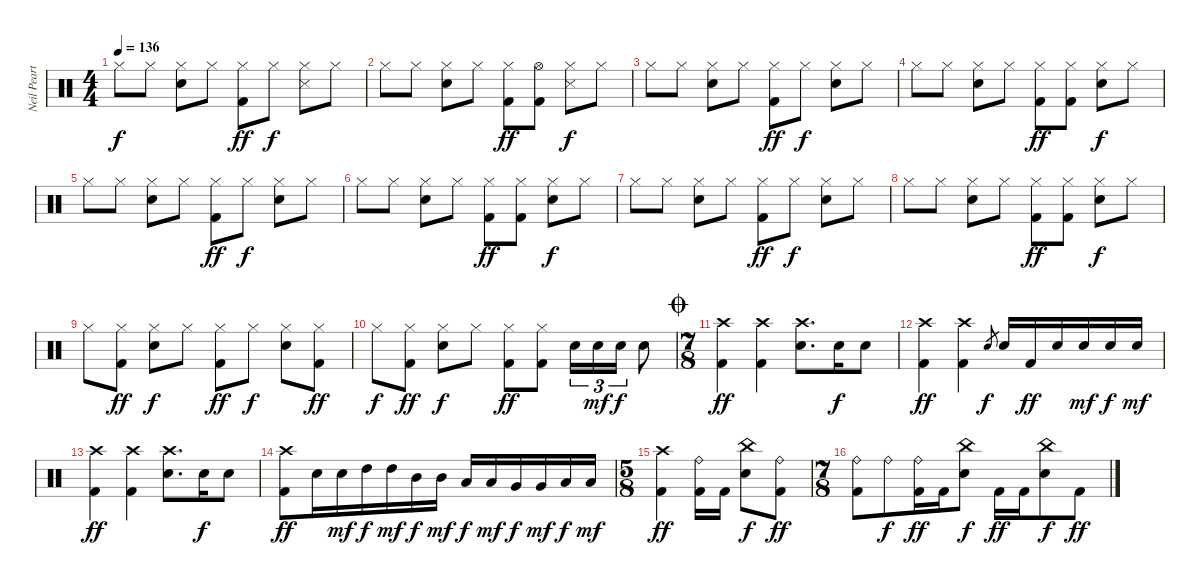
\track ("Neil Peart" "Neil Peart") {instrument percussion}
\staff {score}
\articulation defaults
\ts (4 4)
\tempo 136
\clef neutral
\ks c "Hi-Hat (closed)".8{dy f} "Hi-Hat (closed)".8
("Hi-Hat (closed)" "Snare (hit) 2").8 "Hi-Hat (closed)".8 ("Hi-Hat (closed)" "Kick (hit) 2").8{dy ff} "Hi-Hat (closed)".8{dy f} ("Hi-Hat (closed)" "Snare (side stick) 3").8 "Hi-Hat (closed)".8 |
"Hi-Hat (closed)".8 "Hi-Hat (closed)".8 ("Hi-Hat (closed)" "Snare (hit) 2").8 "Hi-Hat (closed)".8 ("Hi-Hat (closed)" "Kick (hit) 2").8{dy ff} ("Hi-Hat (open)" "Kick (hit) 2").8 ("Hi-Hat (closed)" "Snare (side stick) 3").8{dy f} "Hi-Hat (closed)".8 |
"Hi-Hat (closed)".8 "Hi-Hat (closed)".8 ("Hi-Hat (closed)" "Snare (hit) 2").8 "Hi-Hat (closed)".8 ("Hi-Hat (closed)" "Kick (hit) 2").8{dy ff} "Hi-Hat (closed)".8{dy f} ("Hi-Hat (closed)" "Snare (hit) 2").8 "Hi-Hat (closed)".8 |
"Hi-Hat (closed)".8 "Hi-Hat (closed)".8 ("Hi-Hat (closed)" "Snare (hit) 2").8 "Hi-Hat (closed)".8 ("Hi-Hat (closed)" "Kick (hit) 2").8{dy ff} ("Hi-Hat (closed)" "Kick (hit) 2").8 ("Hi-Hat (closed)" "Snare (hit) 2").8{dy f} "Hi-Hat (closed)".8 |
"Hi-Hat (closed)".8 "Hi-Hat (closed)".8 ("Hi-Hat (closed)" "Snare (hit) 2").8 "Hi-Hat (closed)".8 ("Hi-Hat (closed)" "Kick (hit) 2").8{dy ff} "Hi-Hat (closed)".8{dy f} ("Hi-Hat (closed)" "Snare (hit) 2").8 "Hi-Hat (closed)".8 |
"Hi-Hat (closed)".8 "Hi-Hat (closed)".8 ("Hi-Hat (closed)" "Snare (hit) 2").8 "Hi-Hat (closed)".8 ("Hi-Hat (closed)" "Kick (hit) 2").8{dy ff} ("Hi-Hat (closed)" "Kick (hit) 2").8 ("Hi-Hat (closed)" "Snare (hit) 2").8{dy f} "Hi-Hat (closed)".8 |
"Hi-Hat (closed)".8 "Hi-Hat (closed)".8 ("Hi-Hat (closed)" "Snare (hit) 2").8 "Hi-Hat (closed)".8 ("Hi-Hat (closed)" "Kick (hit) 2").8{dy ff} "Hi-Hat (closed)".8{dy f} ("Hi-Hat (closed)" "Snare (hit) 2").8 "Hi-Hat (closed)".8 |
"Hi-Hat (closed)".8 "Hi-Hat (closed)".8 ("Hi-Hat (closed)" "Snare (hit) 2").8 "Hi-Hat (closed)".8 ("Hi-Hat (closed)" "Kick (hit) 2").8{dy ff} ("Hi-Hat (closed)" "Kick (hit) 2").8 ("Hi-Hat (closed)" "Snare (hit) 2").8{dy f} "Hi-Hat (closed)".8 |
"Hi-Hat (closed)".8 ("Hi-Hat (closed)" "Kick (hit) 2").8{dy ff} ("Hi-Hat (closed)" "Snare (hit) 2").8{dy f} "Hi-Hat (closed)".8 ("Hi-Hat (closed)" "Kick (hit) 2").8{dy ff} "Hi-Hat (closed)".8{dy f} ("Hi-Hat (closed)" "Snare (hit) 2").8 ("Hi-Hat (closed)" "Kick (hit) 2").8{dy ff} |
"Hi-Hat (closed)".8{dy f} ("Hi-Hat (closed)" "Kick (hit) 2").8{dy ff} ("Hi-Hat (closed)" "Snare (hit) 2").8{dy f} "Hi-Hat (closed)".8 ("Hi-Hat (closed)" "Kick (hit) 2").8{dy ff} ("Hi-Hat (closed)" "Kick (hit) 2").8 "Snare (hit) 2".16{tu (3 2)} "Snare (hit) 2".16{tu (3 2) dy mf} "Snare (hit) 2".16{tu (3 2) dy f} "Snare (hit) 2".8 |
\ts (7 8)
\jump coda
("Crash high (hit)" "Kick (hit) 2").4{dy ff} ("Crash high (hit)" "Kick (hit) 2").4 ("Crash high (hit)" "Snare (hit) 2").8{d} "Snare (hit) 2".16{dy f} "Snare (hit) 2".8 |
("Crash high (hit)" "Kick (hit) 2").4{dy ff} ("Crash high (hit)" "Kick (hit) 2").4 "Snare (hit) 2".8{gr dy f} "Snare (hit) 2".16 "Kick (hit) 2".16{dy ff} "Snare (hit) 2".16 "Snare (hit) 2".16{dy mf} "Snare (hit) 2".16{dy f} "Snare (hit) 2".16{dy mf} |
("Crash high (hit)" "Kick (hit) 2").4{dy ff} ("Crash high (hit)" "Kick (hit) 2").4 ("Crash high (hit)" "Snare (hit) 2").8{d} "Snare (hit) 2".16{dy f} "Snare (hit) 2".8 |
("Crash high (hit)" "Kick (hit) 2").8{dy ff} "Snare (hit) 2".16 "Snare (hit) 2".16{dy mf} "High Tom (hit)".16{dy f} "High Tom (hit)".16{dy mf} "Mid Tom (hit)".16{dy f} "Mid Tom (hit)".16{dy mf} "Low Tom (hit)".16{dy f} "Low Tom (hit)".16{dy mf} "Very Low Tom (hit)".16{dy f} "Very Low Tom (hit)".16{dy mf} "Low Floor Tom (hit)".16{dy f} "Low Floor Tom (hit)".16{dy mf} |
\ts (5 8)
("Crash high (hit)" "Kick (hit) 2").4{dy ff} ("Ride (bell)" "Kick (hit) 2").16 "Kick (hit) 2".16 ("China (hit)" "Snare (hit) 2").8{dy f} ("Ride (bell)" "Kick (hit) 2").8{dy ff} |
\ts (7 8)
("Ride (bell)" "Kick (hit) 2").8 "Ride (bell)".8{dy f} ("Ride (bell)" "Kick (hit) 2").16{dy ff} "Kick (hit) 2".16 ("China (hit)" "Snare (hit) 2").8{dy f} "Kick (hit) 2".16{dy ff} "Kick (hit) 2".16 ("China (hit)" "Snare (hit) 2").8{dy f} "Kick (hit) 2".8{dy ff}
